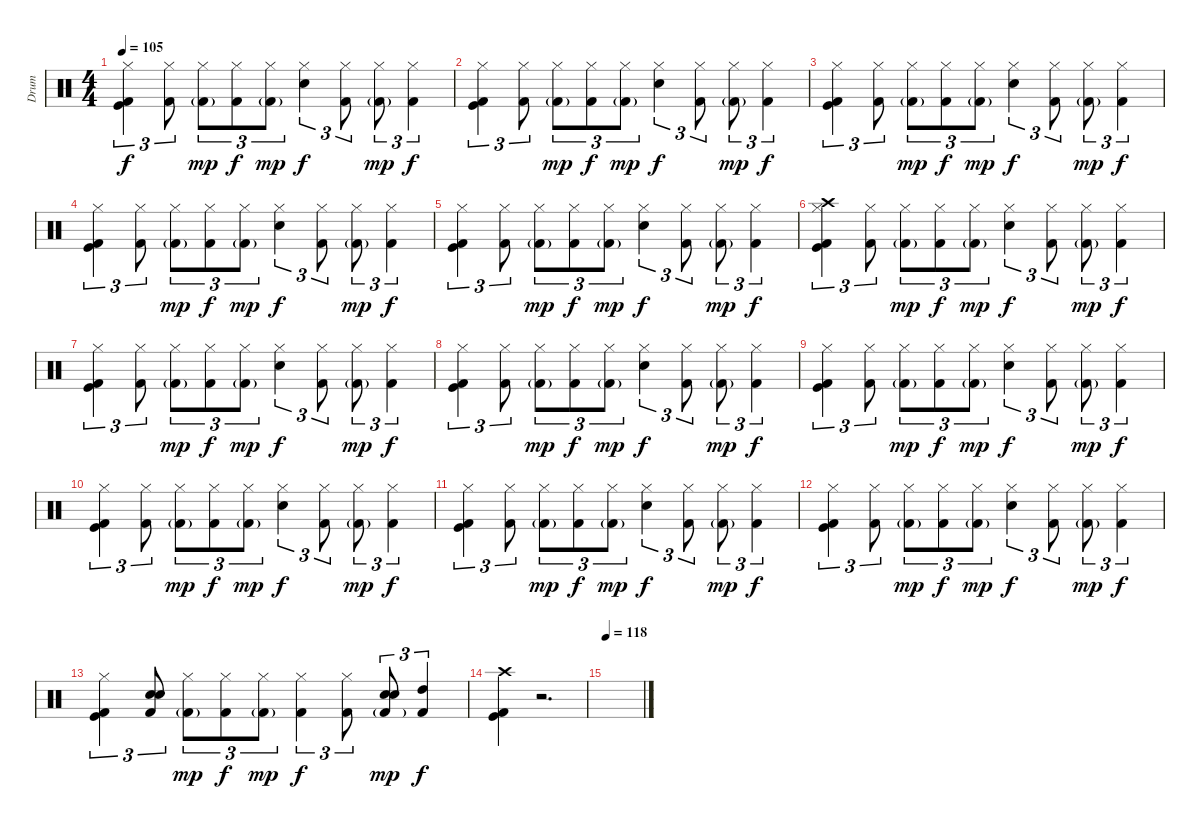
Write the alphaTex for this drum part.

\track ("Drum" "Drum") {instrument percussion}
\staff {score}
\articulation defaults
\ts (4 4)
\tempo 105
\clef neutral
\ks c
("Kick (hit)" "Kick (hit) 2" "Hi-Hat (closed)").4{tu (3 2) dy f} ("Kick (hit) 2" "Hi-Hat (closed)").8{tu (3 2)} ("Kick (hit) 2"{g} "Hi-Hat (closed)").8{tu (3 2) dy mp} ("Kick (hit) 2" "Hi-Hat (closed)").8{tu (3 2) dy f} ("Kick (hit) 2"{g} "Hi-Hat (closed)").8{tu (3 2) dy mp} ("Snare (hit) 2" "Hi-Hat (closed)").4{tu (3 2) dy f} ("Kick (hit) 2" "Hi-Hat (closed)").8{tu (3 2)} ("Kick (hit) 2"{g} "Hi-Hat (closed)").8{tu (3 2) dy mp} ("Kick (hit) 2" "Hi-Hat (closed)").4{tu (3 2) dy f} |
("Kick (hit)" "Kick (hit) 2" "Hi-Hat (closed)").4{tu (3 2)} ("Kick (hit) 2" "Hi-Hat (closed)").8{tu (3 2)} ("Kick (hit) 2"{g} "Hi-Hat (closed)").8{tu (3 2) dy mp} ("Kick (hit) 2" "Hi-Hat (closed)").8{tu (3 2) dy f} ("Kick (hit) 2"{g} "Hi-Hat (closed)").8{tu (3 2) dy mp} ("Snare (hit) 2" "Hi-Hat (closed)").4{tu (3 2) dy f} ("Kick (hit) 2" "Hi-Hat (closed)").8{tu (3 2)} ("Kick (hit) 2"{g} "Hi-Hat (closed)").8{tu (3 2) dy mp} ("Kick (hit) 2" "Hi-Hat (closed)").4{tu (3 2) dy f} |
("Kick (hit)" "Kick (hit) 2" "Hi-Hat (closed)").4{tu (3 2)} ("Kick (hit) 2" "Hi-Hat (closed)").8{tu (3 2)} ("Kick (hit) 2"{g} "Hi-Hat (closed)").8{tu (3 2) dy mp} ("Kick (hit) 2" "Hi-Hat (closed)").8{tu (3 2) dy f} ("Kick (hit) 2"{g} "Hi-Hat (closed)").8{tu (3 2) dy mp} ("Snare (hit) 2" "Hi-Hat (closed)").4{tu (3 2) dy f} ("Kick (hit) 2" "Hi-Hat (closed)").8{tu (3 2)} ("Kick (hit) 2"{g} "Hi-Hat (closed)").8{tu (3 2) dy mp} ("Kick (hit) 2" "Hi-Hat (closed)").4{tu (3 2) dy f} |
("Kick (hit)" "Kick (hit) 2" "Hi-Hat (closed)").4{tu (3 2)} ("Kick (hit) 2" "Hi-Hat (closed)").8{tu (3 2)} ("Kick (hit) 2"{g} "Hi-Hat (closed)").8{tu (3 2) dy mp} ("Kick (hit) 2" "Hi-Hat (closed)").8{tu (3 2) dy f} ("Kick (hit) 2"{g} "Hi-Hat (closed)").8{tu (3 2) dy mp} ("Snare (hit) 2" "Hi-Hat (closed)").4{tu (3 2) dy f} ("Kick (hit) 2" "Hi-Hat (closed)").8{tu (3 2)} ("Kick (hit) 2"{g} "Hi-Hat (closed)").8{tu (3 2) dy mp} ("Kick (hit) 2" "Hi-Hat (closed)").4{tu (3 2) dy f} |
("Kick (hit)" "Kick (hit) 2" "Hi-Hat (closed)").4{tu (3 2)} ("Kick (hit) 2" "Hi-Hat (closed)").8{tu (3 2)} ("Kick (hit) 2"{g} "Hi-Hat (closed)").8{tu (3 2) dy mp} ("Kick (hit) 2" "Hi-Hat (closed)").8{tu (3 2) dy f} ("Kick (hit) 2"{g} "Hi-Hat (closed)").8{tu (3 2) dy mp} ("Snare (hit) 2" "Hi-Hat (closed)").4{tu (3 2) dy f} ("Kick (hit) 2" "Hi-Hat (closed)").8{tu (3 2)} ("Kick (hit) 2"{g} "Hi-Hat (closed)").8{tu (3 2) dy mp} ("Kick (hit) 2" "Hi-Hat (closed)").4{tu (3 2) dy f} |
("Kick (hit)" "Kick (hit) 2" "Hi-Hat (closed)" "Crash high (hit)").4{tu (3 2)} ("Kick (hit) 2" "Hi-Hat (closed)").8{tu (3 2)} ("Kick (hit) 2"{g} "Hi-Hat (closed)").8{tu (3 2) dy mp} ("Kick (hit) 2" "Hi-Hat (closed)").8{tu (3 2) dy f} ("Kick (hit) 2"{g} "Hi-Hat (closed)").8{tu (3 2) dy mp} ("Snare (hit) 2" "Hi-Hat (closed)").4{tu (3 2) dy f} ("Kick (hit) 2" "Hi-Hat (closed)").8{tu (3 2)} ("Kick (hit) 2"{g} "Hi-Hat (closed)").8{tu (3 2) dy mp} ("Kick (hit) 2" "Hi-Hat (closed)").4{tu (3 2) dy f} |
("Kick (hit)" "Kick (hit) 2" "Hi-Hat (closed)").4{tu (3 2)} ("Kick (hit) 2" "Hi-Hat (closed)").8{tu (3 2)} ("Kick (hit) 2"{g} "Hi-Hat (closed)").8{tu (3 2) dy mp} ("Kick (hit) 2" "Hi-Hat (closed)").8{tu (3 2) dy f} ("Kick (hit) 2"{g} "Hi-Hat (closed)").8{tu (3 2) dy mp} ("Snare (hit) 2" "Hi-Hat (closed)").4{tu (3 2) dy f} ("Kick (hit) 2" "Hi-Hat (closed)").8{tu (3 2)} ("Kick (hit) 2"{g} "Hi-Hat (closed)").8{tu (3 2) dy mp} ("Kick (hit) 2" "Hi-Hat (closed)").4{tu (3 2) dy f} |
("Kick (hit)" "Kick (hit) 2" "Hi-Hat (closed)").4{tu (3 2)} ("Kick (hit) 2" "Hi-Hat (closed)").8{tu (3 2)} ("Kick (hit) 2"{g} "Hi-Hat (closed)").8{tu (3 2) dy mp} ("Kick (hit) 2" "Hi-Hat (closed)").8{tu (3 2) dy f} ("Kick (hit) 2"{g} "Hi-Hat (closed)").8{tu (3 2) dy mp} ("Snare (hit) 2" "Hi-Hat (closed)").4{tu (3 2) dy f} ("Kick (hit) 2" "Hi-Hat (closed)").8{tu (3 2)} ("Kick (hit) 2"{g} "Hi-Hat (closed)").8{tu (3 2) dy mp} ("Kick (hit) 2" "Hi-Hat (closed)").4{tu (3 2) dy f} |
("Kick (hit)" "Kick (hit) 2" "Hi-Hat (closed)").4{tu (3 2)} ("Kick (hit) 2" "Hi-Hat (closed)").8{tu (3 2)} ("Kick (hit) 2"{g} "Hi-Hat (closed)").8{tu (3 2) dy mp} ("Kick (hit) 2" "Hi-Hat (closed)").8{tu (3 2) dy f} ("Kick (hit) 2"{g} "Hi-Hat (closed)").8{tu (3 2) dy mp} ("Snare (hit) 2" "Hi-Hat (closed)").4{tu (3 2) dy f} ("Kick (hit) 2" "Hi-Hat (closed)").8{tu (3 2)} ("Kick (hit) 2"{g} "Hi-Hat (closed)").8{tu (3 2) dy mp} ("Kick (hit) 2" "Hi-Hat (closed)").4{tu (3 2) dy f} |
("Kick (hit)" "Kick (hit) 2" "Hi-Hat (closed)").4{tu (3 2)} ("Kick (hit) 2" "Hi-Hat (closed)").8{tu (3 2)} ("Kick (hit) 2"{g} "Hi-Hat (closed)").8{tu (3 2) dy mp} ("Kick (hit) 2" "Hi-Hat (closed)").8{tu (3 2) dy f} ("Kick (hit) 2"{g} "Hi-Hat (closed)").8{tu (3 2) dy mp} ("Snare (hit) 2" "Hi-Hat (closed)").4{tu (3 2) dy f} ("Kick (hit) 2" "Hi-Hat (closed)").8{tu (3 2)} ("Kick (hit) 2"{g} "Hi-Hat (closed)").8{tu (3 2) dy mp} ("Kick (hit) 2" "Hi-Hat (closed)").4{tu (3 2) dy f} |
("Kick (hit)" "Kick (hit) 2" "Hi-Hat (closed)").4{tu (3 2)} ("Kick (hit) 2" "Hi-Hat (closed)").8{tu (3 2)} ("Kick (hit) 2"{g} "Hi-Hat (closed)").8{tu (3 2) dy mp} ("Kick (hit) 2" "Hi-Hat (closed)").8{tu (3 2) dy f} ("Kick (hit) 2"{g} "Hi-Hat (closed)").8{tu (3 2) dy mp} ("Snare (hit) 2" "Hi-Hat (closed)").4{tu (3 2) dy f} ("Kick (hit) 2" "Hi-Hat (closed)").8{tu (3 2)} ("Kick (hit) 2"{g} "Hi-Hat (closed)").8{tu (3 2) dy mp} ("Kick (hit) 2" "Hi-Hat (closed)").4{tu (3 2) dy f} |
("Kick (hit)" "Kick (hit) 2" "Hi-Hat (closed)").4{tu (3 2)} ("Kick (hit) 2" "Hi-Hat (closed)").8{tu (3 2)} ("Kick (hit) 2"{g} "Hi-Hat (closed)").8{tu (3 2) dy mp} ("Kick (hit) 2" "Hi-Hat (closed)").8{tu (3 2) dy f} ("Kick (hit) 2"{g} "Hi-Hat (closed)").8{tu (3 2) dy mp} ("Snare (hit) 2" "Hi-Hat (closed)").4{tu (3 2) dy f} ("Kick (hit) 2" "Hi-Hat (closed)").8{tu (3 2)} ("Kick (hit) 2"{g} "Hi-Hat (closed)").8{tu (3 2) dy mp} ("Kick (hit) 2" "Hi-Hat (closed)").4{tu (3 2) dy f} |
("Kick (hit)" "Kick (hit) 2" "Hi-Hat (closed)").4{tu (3 2)} ("Kick (hit) 2" "Snare (hit) 2" "Electric Snare (hit)").8{tu (3 2)} ("Kick (hit) 2"{g} "Hi-Hat (closed)").8{tu (3 2) dy mp} ("Kick (hit) 2" "Hi-Hat (closed)").8{tu (3 2) dy f} ("Kick (hit) 2"{g} "Hi-Hat (closed)").8{tu (3 2) dy mp} ("Kick (hit) 2" "Hi-Hat (closed)").4{tu (3 2) dy f} ("Kick (hit) 2" "Hi-Hat (closed)").8{tu (3 2)} ("Kick (hit) 2"{g} "Electric Snare (hit)" "Snare (hit) 2").8{tu (3 2) dy mp} ("Kick (hit) 2" "High Tom (hit)").4{tu (3 2) dy f} |
("Crash high (hit)" "Kick (hit) 2" "Kick (hit)").4 r.2{d} |
\tempo 118
